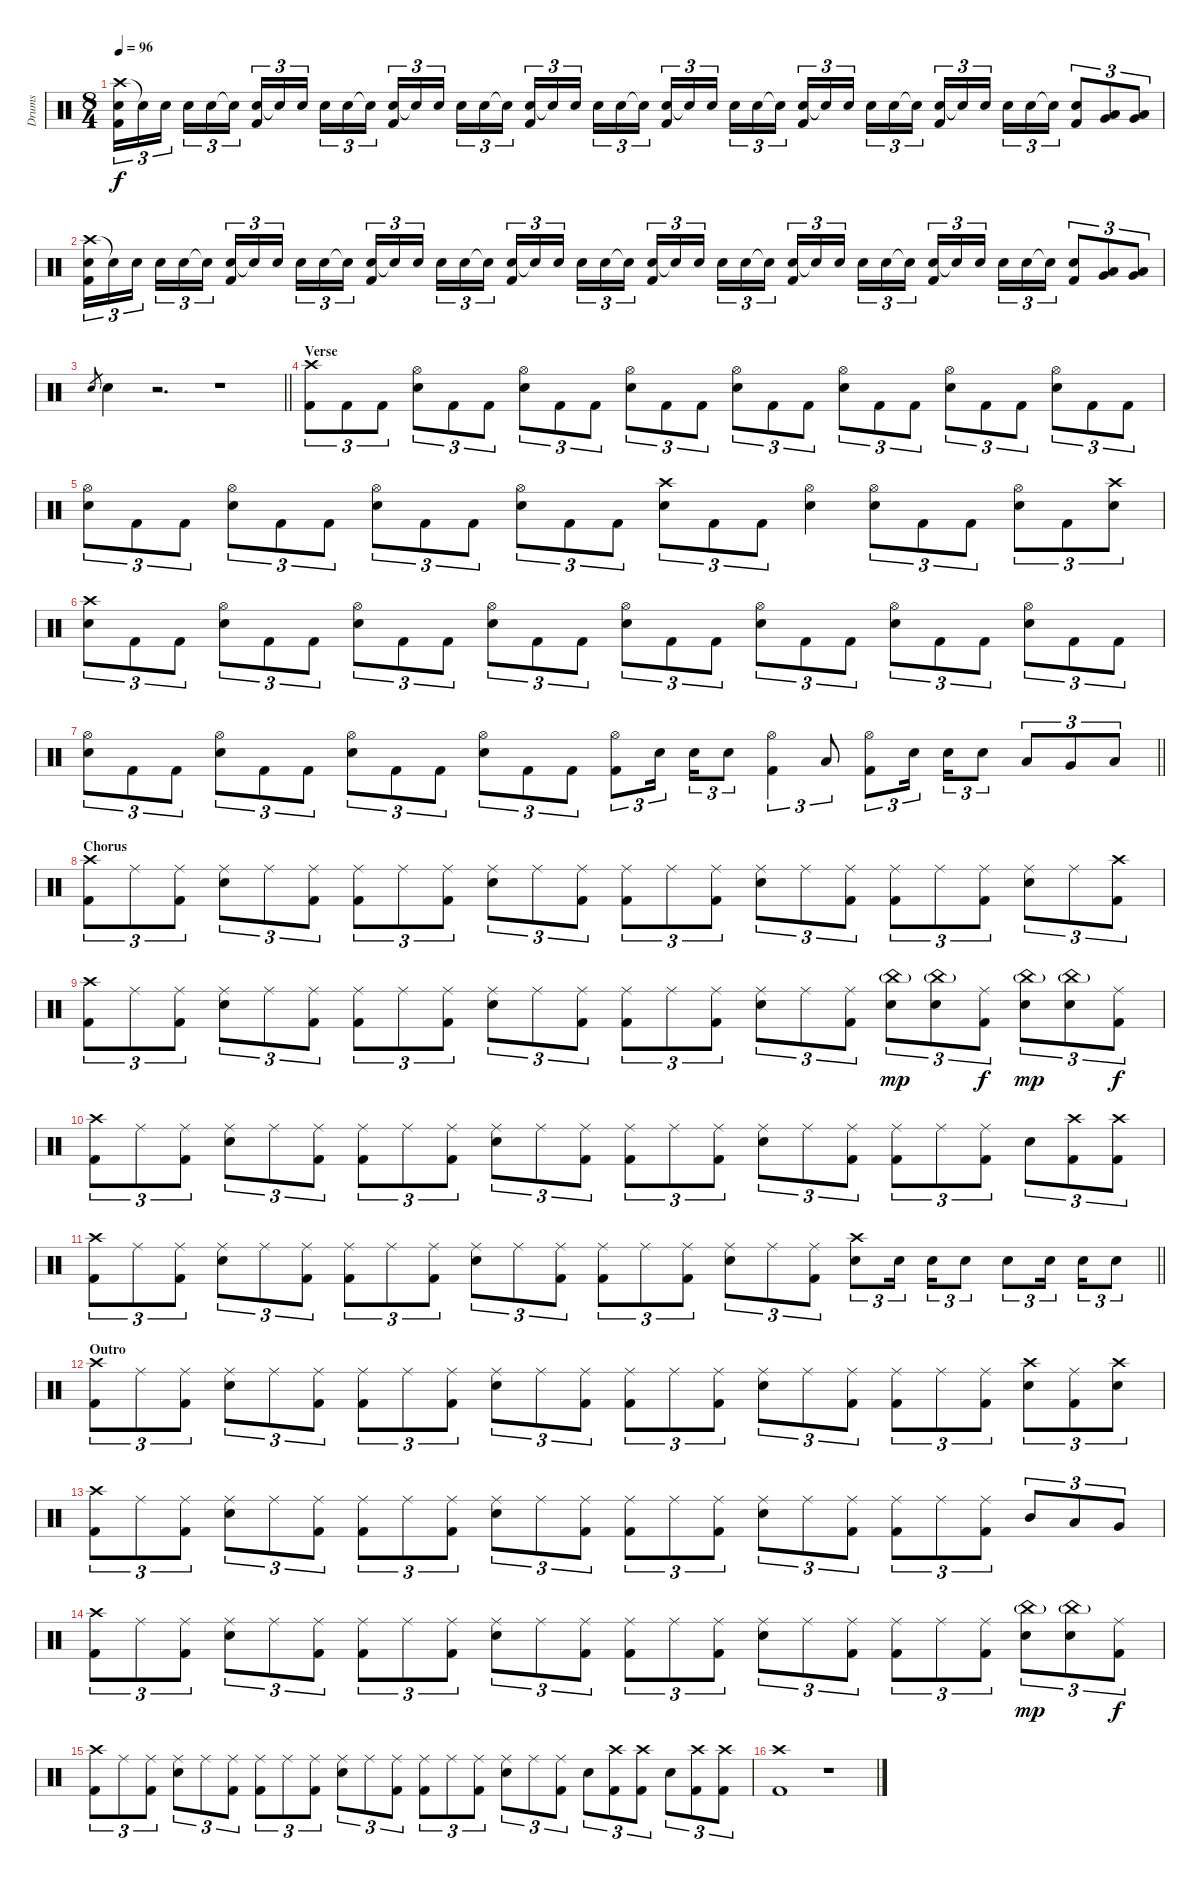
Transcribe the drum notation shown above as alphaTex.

\track ("Drums" "Drums") {instrument percussion}
\staff {score}
\articulation defaults
\ts (8 4)
\tempo 96
\clef neutral
\ks c
("Crash high (hit)" "Snare (hit) 2" "Kick (hit) 2").16{tu (3 2) dy f} "Snare (hit) 2"{t}.16{tu (3 2)} "Snare (hit) 2".16{tu (3 2) beam splitsecondary} "Snare (hit) 2".16{tu (3 2)} "Snare (hit) 2".16{tu (3 2)} "Snare (hit) 2"{t}.16{tu (3 2)} ("Snare (hit) 2" "Kick (hit) 2").16{tu (3 2)} "Snare (hit) 2"{t}.16{tu (3 2)} "Snare (hit) 2".16{tu (3 2) beam splitsecondary} "Snare (hit) 2".16{tu (3 2)} "Snare (hit) 2".16{tu (3 2)} "Snare (hit) 2"{t}.16{tu (3 2)} ("Snare (hit) 2" "Kick (hit) 2").16{tu (3 2)} "Snare (hit) 2"{t}.16{tu (3 2)} "Snare (hit) 2".16{tu (3 2) beam splitsecondary} "Snare (hit) 2".16{tu (3 2)} "Snare (hit) 2".16{tu (3 2)} "Snare (hit) 2"{t}.16{tu (3 2)} ("Snare (hit) 2" "Kick (hit) 2").16{tu (3 2)} "Snare (hit) 2"{t}.16{tu (3 2)} "Snare (hit) 2".16{tu (3 2) beam splitsecondary} "Snare (hit) 2".16{tu (3 2)} "Snare (hit) 2".16{tu (3 2)} "Snare (hit) 2"{t}.16{tu (3 2)} ("Snare (hit) 2" "Kick (hit) 2").16{tu (3 2)} "Snare (hit) 2"{t}.16{tu (3 2)} "Snare (hit) 2".16{tu (3 2) beam splitsecondary} "Snare (hit) 2".16{tu (3 2)} "Snare (hit) 2".16{tu (3 2)} "Snare (hit) 2"{t}.16{tu (3 2)} ("Snare (hit) 2" "Kick (hit) 2").16{tu (3 2)} "Snare (hit) 2"{t}.16{tu (3 2)} "Snare (hit) 2".16{tu (3 2) beam splitsecondary} "Snare (hit) 2".16{tu (3 2)} "Snare (hit) 2".16{tu (3 2)} "Snare (hit) 2"{t}.16{tu (3 2)} ("Snare (hit) 2" "Kick (hit) 2").16{tu (3 2)} "Snare (hit) 2"{t}.16{tu (3 2)} "Snare (hit) 2".16{tu (3 2) beam splitsecondary} "Snare (hit) 2".16{tu (3 2)} "Snare (hit) 2".16{tu (3 2)} "Snare (hit)"{t}.16{tu (3 2)} ("Snare (hit) 2" "Kick (hit) 2").8{tu (3 2)} ("Low Tom (hit)" "Very Low Tom (hit)").8{tu (3 2)} ("Low Floor Tom (hit)" "Very Low Tom (hit)").8{tu (3 2)} |
("Crash high (hit)" "Snare (hit) 2" "Kick (hit) 2").16{tu (3 2)} "Snare (hit) 2"{t}.16{tu (3 2)} "Snare (hit) 2".16{tu (3 2) beam splitsecondary} "Snare (hit) 2".16{tu (3 2)} "Snare (hit) 2".16{tu (3 2)} "Snare (hit) 2"{t}.16{tu (3 2)} ("Snare (hit) 2" "Kick (hit) 2").16{tu (3 2)} "Snare (hit) 2"{t}.16{tu (3 2)} "Snare (hit) 2".16{tu (3 2) beam splitsecondary} "Snare (hit) 2".16{tu (3 2)} "Snare (hit) 2".16{tu (3 2)} "Snare (hit) 2"{t}.16{tu (3 2)} ("Snare (hit) 2" "Kick (hit) 2").16{tu (3 2)} "Snare (hit) 2"{t}.16{tu (3 2)} "Snare (hit) 2".16{tu (3 2) beam splitsecondary} "Snare (hit) 2".16{tu (3 2)} "Snare (hit) 2".16{tu (3 2)} "Snare (hit) 2"{t}.16{tu (3 2)} ("Snare (hit) 2" "Kick (hit) 2").16{tu (3 2)} "Snare (hit) 2"{t}.16{tu (3 2)} "Snare (hit) 2".16{tu (3 2) beam splitsecondary} "Snare (hit) 2".16{tu (3 2)} "Snare (hit) 2".16{tu (3 2)} "Snare (hit) 2"{t}.16{tu (3 2)} ("Snare (hit) 2" "Kick (hit) 2").16{tu (3 2)} "Snare (hit) 2"{t}.16{tu (3 2)} "Snare (hit) 2".16{tu (3 2) beam splitsecondary} "Snare (hit) 2".16{tu (3 2)} "Snare (hit) 2".16{tu (3 2)} "Snare (hit) 2"{t}.16{tu (3 2)} ("Snare (hit) 2" "Kick (hit) 2").16{tu (3 2)} "Snare (hit) 2"{t}.16{tu (3 2)} "Snare (hit) 2".16{tu (3 2) beam splitsecondary} "Snare (hit) 2".16{tu (3 2)} "Snare (hit) 2".16{tu (3 2)} "Snare (hit) 2"{t}.16{tu (3 2)} ("Snare (hit) 2" "Kick (hit) 2").16{tu (3 2)} "Snare (hit) 2"{t}.16{tu (3 2)} "Snare (hit) 2".16{tu (3 2) beam splitsecondary} "Snare (hit) 2".16{tu (3 2)} "Snare (hit) 2".16{tu (3 2)} "Snare (hit) 2"{t}.16{tu (3 2)} ("Snare (hit) 2" "Kick (hit) 2").8{tu (3 2)} ("Low Tom (hit)" "Very Low Tom (hit)").8{tu (3 2)} ("Low Floor Tom (hit)" "Very Low Tom (hit)").8{tu (3 2)} |
\barLineRight lightlight "Snare (hit) 2".8{gr} "Snare (hit) 2".4
r.2{d} r.1 |
\section ("" "Verse")
("Crash high (hit)" "Kick (hit) 2").8{tu (3 2)} "Kick (hit) 2".8{tu (3 2)} "Kick (hit) 2".8{tu (3 2)} ("Hi-Hat (open)" "Snare (hit) 2").8{tu (3 2)} "Kick (hit) 2".8{tu (3 2)} "Kick (hit) 2".8{tu (3 2)} ("Hi-Hat (open)" "Snare (hit) 2").8{tu (3 2)} "Kick (hit) 2".8{tu (3 2)} "Kick (hit) 2".8{tu (3 2)} ("Hi-Hat (open)" "Snare (hit) 2").8{tu (3 2)} "Kick (hit) 2".8{tu (3 2)} "Kick (hit) 2".8{tu (3 2)} ("Hi-Hat (open)" "Snare (hit) 2").8{tu (3 2)} "Kick (hit) 2".8{tu (3 2)} "Kick (hit) 2".8{tu (3 2)} ("Hi-Hat (open)" "Snare (hit) 2").8{tu (3 2)} "Kick (hit) 2".8{tu (3 2)} "Kick (hit) 2".8{tu (3 2)} ("Hi-Hat (open)" "Snare (hit) 2").8{tu (3 2)} "Kick (hit) 2".8{tu (3 2)} "Kick (hit) 2".8{tu (3 2)} ("Hi-Hat (open)" "Snare (hit) 2").8{tu (3 2)} "Kick (hit) 2".8{tu (3 2)} "Kick (hit) 2".8{tu (3 2)} |
("Hi-Hat (open)" "Snare (hit) 2").8{tu (3 2)} "Kick (hit) 2".8{tu (3 2)} "Kick (hit) 2".8{tu (3 2)} ("Hi-Hat (open)" "Snare (hit) 2").8{tu (3 2)} "Kick (hit) 2".8{tu (3 2)} "Kick (hit) 2".8{tu (3 2)} ("Hi-Hat (open)" "Snare (hit) 2").8{tu (3 2)} "Kick (hit) 2".8{tu (3 2)} "Kick (hit) 2".8{tu (3 2)} ("Hi-Hat (open)" "Snare (hit) 2").8{tu (3 2)} "Kick (hit) 2".8{tu (3 2)} "Kick (hit) 2".8{tu (3 2)} ("Crash high (hit)" "Snare (hit) 2").8{tu (3 2)} "Kick (hit) 2".8{tu (3 2)} "Kick (hit) 2".8{tu (3 2)} ("Hi-Hat (open)" "Snare (hit) 2").4 ("Hi-Hat (open)" "Snare (hit) 2").8{tu (3 2)} "Kick (hit) 2".8{tu (3 2)} "Kick (hit) 2".8{tu (3 2)} ("Hi-Hat (open)" "Snare (hit) 2").8{tu (3 2)} "Kick (hit) 2".8{tu (3 2)} ("Crash high (hit)" "Snare (hit) 2").8{tu (3 2)} |
("Crash high (hit)" "Snare (hit) 2").8{tu (3 2)} "Kick (hit) 2".8{tu (3 2)} "Kick (hit) 2".8{tu (3 2)} ("Hi-Hat (open)" "Snare (hit) 2").8{tu (3 2)} "Kick (hit) 2".8{tu (3 2)} "Kick (hit) 2".8{tu (3 2)} ("Hi-Hat (open)" "Snare (hit) 2").8{tu (3 2)} "Kick (hit) 2".8{tu (3 2)} "Kick (hit) 2".8{tu (3 2)} ("Hi-Hat (open)" "Snare (hit) 2").8{tu (3 2)} "Kick (hit) 2".8{tu (3 2)} "Kick (hit) 2".8{tu (3 2)} ("Hi-Hat (open)" "Snare (hit) 2").8{tu (3 2)} "Kick (hit) 2".8{tu (3 2)} "Kick (hit) 2".8{tu (3 2)} ("Hi-Hat (open)" "Snare (hit) 2").8{tu (3 2)} "Kick (hit) 2".8{tu (3 2)} "Kick (hit) 2".8{tu (3 2)} ("Hi-Hat (open)" "Snare (hit) 2").8{tu (3 2)} "Kick (hit) 2".8{tu (3 2)} "Kick (hit) 2".8{tu (3 2)} ("Hi-Hat (open)" "Snare (hit) 2").8{tu (3 2)} "Kick (hit) 2".8{tu (3 2)} "Kick (hit) 2".8{tu (3 2)} |
\barLineRight lightlight
("Hi-Hat (open)" "Snare (hit) 2").8{tu (3 2)} "Kick (hit) 2".8{tu (3 2)} "Kick (hit) 2".8{tu (3 2)} ("Hi-Hat (open)" "Snare (hit) 2").8{tu (3 2)} "Kick (hit) 2".8{tu (3 2)} "Kick (hit) 2".8{tu (3 2)} ("Hi-Hat (open)" "Snare (hit) 2").8{tu (3 2)} "Kick (hit) 2".8{tu (3 2)} "Kick (hit) 2".8{tu (3 2)} ("Hi-Hat (open)" "Snare (hit) 2").8{tu (3 2)} "Kick (hit) 2".8{tu (3 2)} "Kick (hit) 2".8{tu (3 2)} ("Hi-Hat (open)" "Kick (hit) 2").8{tu (3 2)} "Snare (hit) 2".16{tu (3 2) beam splitsecondary} "Snare (hit) 2".16{tu (3 2)} "Snare (hit) 2".8{tu (3 2)} ("Hi-Hat (open)" "Kick (hit) 2").4{tu (3 2)} "Low Floor Tom (hit)".8{tu (3 2)} ("Hi-Hat (open)" "Kick (hit) 2").8{tu (3 2)} "Snare (hit) 2".16{tu (3 2) beam splitsecondary} "Snare (hit) 2".16{tu (3 2)} "Snare (hit) 2".8{tu (3 2)} "Low Tom (hit)".8{tu (3 2)} "Very Low Tom (hit)".8{tu (3 2)} "Low Floor Tom (hit)".8{tu (3 2)} |
\section ("" "Chorus")
("Crash high (hit)" "Kick (hit) 2").8{tu (3 2)} "Ride (middle)".8{tu (3 2)} ("Ride (middle)" "Kick (hit) 2").8{tu (3 2)} ("Ride (middle)" "Snare (hit) 2").8{tu (3 2)} "Ride (middle)".8{tu (3 2)} ("Ride (middle)" "Kick (hit) 2").8{tu (3 2)} ("Ride (middle)" "Kick (hit) 2").8{tu (3 2)} "Ride (middle)".8{tu (3 2)} ("Ride (middle)" "Kick (hit) 2").8{tu (3 2)} ("Ride (middle)" "Snare (hit) 2").8{tu (3 2)} "Ride (middle)".8{tu (3 2)} ("Ride (middle)" "Kick (hit) 2").8{tu (3 2)} ("Ride (middle)" "Kick (hit) 2").8{tu (3 2)} "Ride (middle)".8{tu (3 2)} ("Ride (middle)" "Kick (hit) 2").8{tu (3 2)} ("Ride (middle)" "Snare (hit) 2").8{tu (3 2)} "Ride (middle)".8{tu (3 2)} ("Ride (middle)" "Kick (hit) 2").8{tu (3 2)} ("Ride (middle)" "Kick (hit) 2").8{tu (3 2)} "Ride (middle)".8{tu (3 2)} ("Ride (middle)" "Kick (hit) 2").8{tu (3 2)} ("Ride (middle)" "Snare (hit) 2").8{tu (3 2)} "Ride (middle)".8{tu (3 2)} ("Crash high (hit)" "Kick (hit) 2").8{tu (3 2)} |
("Crash high (hit)" "Kick (hit) 2").8{tu (3 2)} "Ride (middle)".8{tu (3 2)} ("Ride (middle)" "Kick (hit) 2").8{tu (3 2)} ("Ride (middle)" "Snare (hit) 2").8{tu (3 2)} "Ride (middle)".8{tu (3 2)} ("Ride (middle)" "Kick (hit) 2").8{tu (3 2)} ("Ride (middle)" "Kick (hit) 2").8{tu (3 2)} "Ride (middle)".8{tu (3 2)} ("Ride (middle)" "Kick (hit) 2").8{tu (3 2)} ("Ride (middle)" "Snare (hit) 2").8{tu (3 2)} "Ride (middle)".8{tu (3 2)} ("Ride (middle)" "Kick (hit) 2").8{tu (3 2)} ("Ride (middle)" "Kick (hit) 2").8{tu (3 2)} "Ride (middle)".8{tu (3 2)} ("Ride (middle)" "Kick (hit) 2").8{tu (3 2)} ("Ride (middle)" "Snare (hit) 2").8{tu (3 2)} "Ride (middle)".8{tu (3 2)} ("Ride (middle)" "Kick (hit) 2").8{tu (3 2)} ("China (hit)"{g} "Snare (hit) 2").8{tu (3 2) dy mp} ("China (hit)"{g} "Snare (hit) 2").8{tu (3 2)} ("Ride (middle)" "Kick (hit) 2").8{tu (3 2) dy f} ("China (hit)"{g} "Snare (hit) 2").8{tu (3 2) dy mp} ("China (hit)"{g} "Snare (hit) 2").8{tu (3 2)} ("Ride (middle)" "Kick (hit) 2").8{tu (3 2) dy f} |
("Crash high (hit)" "Kick (hit) 2").8{tu (3 2)} "Ride (middle)".8{tu (3 2)} ("Ride (middle)" "Kick (hit) 2").8{tu (3 2)} ("Ride (middle)" "Snare (hit) 2").8{tu (3 2)} "Ride (middle)".8{tu (3 2)} ("Ride (middle)" "Kick (hit) 2").8{tu (3 2)} ("Ride (middle)" "Kick (hit) 2").8{tu (3 2)} "Ride (middle)".8{tu (3 2)} ("Ride (middle)" "Kick (hit) 2").8{tu (3 2)} ("Ride (middle)" "Snare (hit) 2").8{tu (3 2)} "Ride (middle)".8{tu (3 2)} ("Ride (middle)" "Kick (hit) 2").8{tu (3 2)} ("Ride (middle)" "Kick (hit) 2").8{tu (3 2)} "Ride (middle)".8{tu (3 2)} ("Ride (middle)" "Kick (hit) 2").8{tu (3 2)} ("Ride (middle)" "Snare (hit) 2").8{tu (3 2)} "Ride (middle)".8{tu (3 2)} ("Ride (middle)" "Kick (hit) 2").8{tu (3 2)} ("Ride (middle)" "Kick (hit) 2").8{tu (3 2)} "Ride (middle)".8{tu (3 2)} ("Ride (middle)" "Kick (hit) 2").8{tu (3 2)} "Snare (hit) 2".8{tu (3 2)} ("Crash high (hit)" "Kick (hit) 2").8{tu (3 2)} ("Crash high (hit)" "Kick (hit) 2").8{tu (3 2)} |
\barLineRight lightlight
("Crash high (hit)" "Kick (hit) 2").8{tu (3 2)} "Ride (middle)".8{tu (3 2)} ("Ride (middle)" "Kick (hit) 2").8{tu (3 2)} ("Ride (middle)" "Snare (hit) 2").8{tu (3 2)} "Ride (middle)".8{tu (3 2)} ("Ride (middle)" "Kick (hit) 2").8{tu (3 2)} ("Ride (middle)" "Kick (hit) 2").8{tu (3 2)} "Ride (middle)".8{tu (3 2)} ("Ride (middle)" "Kick (hit) 2").8{tu (3 2)} ("Ride (middle)" "Snare (hit) 2").8{tu (3 2)} "Ride (middle)".8{tu (3 2)} ("Ride (middle)" "Kick (hit) 2").8{tu (3 2)} ("Ride (middle)" "Kick (hit) 2").8{tu (3 2)} "Ride (middle)".8{tu (3 2)} ("Ride (middle)" "Kick (hit) 2").8{tu (3 2)} ("Ride (middle)" "Snare (hit) 2").8{tu (3 2)} "Ride (middle)".8{tu (3 2)} ("Ride (middle)" "Kick (hit) 2").8{tu (3 2)} ("Crash high (hit)" "Snare (hit) 2").8{tu (3 2)} "Snare (hit) 2".16{tu (3 2) beam splitsecondary} "Snare (hit) 2".16{tu (3 2)} "Snare (hit) 2".8{tu (3 2)} "Snare (hit) 2".8{tu (3 2)} "Snare (hit) 2".16{tu (3 2) beam splitsecondary} "Snare (hit) 2".16{tu (3 2)} "Snare (hit) 2".8{tu (3 2)} |
\section ("" "Outro")
("Crash high (hit)" "Kick (hit) 2").8{tu (3 2)} "Ride (middle)".8{tu (3 2)} ("Ride (middle)" "Kick (hit) 2").8{tu (3 2)} ("Ride (middle)" "Snare (hit) 2").8{tu (3 2)} "Ride (middle)".8{tu (3 2)} ("Ride (middle)" "Kick (hit) 2").8{tu (3 2)} ("Ride (middle)" "Kick (hit) 2").8{tu (3 2)} "Ride (middle)".8{tu (3 2)} ("Ride (middle)" "Kick (hit) 2").8{tu (3 2)} ("Ride (middle)" "Snare (hit) 2").8{tu (3 2)} "Ride (middle)".8{tu (3 2)} ("Ride (middle)" "Kick (hit) 2").8{tu (3 2)} ("Ride (middle)" "Kick (hit) 2").8{tu (3 2)} "Ride (middle)".8{tu (3 2)} ("Ride (middle)" "Kick (hit) 2").8{tu (3 2)} ("Ride (middle)" "Snare (hit) 2").8{tu (3 2)} "Ride (middle)".8{tu (3 2)} ("Ride (middle)" "Kick (hit) 2").8{tu (3 2)} ("Ride (middle)" "Kick (hit) 2").8{tu (3 2)} "Ride (middle)".8{tu (3 2)} ("Ride (middle)" "Kick (hit) 2").8{tu (3 2)} ("Crash high (hit)" "Snare (hit) 2").8{tu (3 2)} ("Ride (middle)" "Kick (hit) 2").8{tu (3 2)} ("Crash high (hit)" "Snare (hit) 2").8{tu (3 2)} |
("Crash high (hit)" "Kick (hit) 2").8{tu (3 2)} "Ride (middle)".8{tu (3 2)} ("Ride (middle)" "Kick (hit) 2").8{tu (3 2)} ("Ride (middle)" "Snare (hit) 2").8{tu (3 2)} "Ride (middle)".8{tu (3 2)} ("Ride (middle)" "Kick (hit) 2").8{tu (3 2)} ("Ride (middle)" "Kick (hit) 2").8{tu (3 2)} "Ride (middle)".8{tu (3 2)} ("Ride (middle)" "Kick (hit) 2").8{tu (3 2)} ("Ride (middle)" "Snare (hit) 2").8{tu (3 2)} "Ride (middle)".8{tu (3 2)} ("Ride (middle)" "Kick (hit) 2").8{tu (3 2)} ("Ride (middle)" "Kick (hit) 2").8{tu (3 2)} "Ride (middle)".8{tu (3 2)} ("Ride (middle)" "Kick (hit) 2").8{tu (3 2)} ("Ride (middle)" "Snare (hit) 2").8{tu (3 2)} "Ride (middle)".8{tu (3 2)} ("Ride (middle)" "Kick (hit) 2").8{tu (3 2)} ("Ride (middle)" "Kick (hit) 2").8{tu (3 2)} "Ride (middle)".8{tu (3 2)} ("Ride (middle)" "Kick (hit) 2").8{tu (3 2)} "Mid Tom (hit)".8{tu (3 2)} "Low Tom (hit)".8{tu (3 2)} "Very Low Tom (hit)".8{tu (3 2)} |
("Crash high (hit)" "Kick (hit) 2").8{tu (3 2)} "Ride (middle)".8{tu (3 2)} ("Ride (middle)" "Kick (hit) 2").8{tu (3 2)} ("Ride (middle)" "Snare (hit) 2").8{tu (3 2)} "Ride (middle)".8{tu (3 2)} ("Ride (middle)" "Kick (hit) 2").8{tu (3 2)} ("Ride (middle)" "Kick (hit) 2").8{tu (3 2)} "Ride (middle)".8{tu (3 2)} ("Ride (middle)" "Kick (hit) 2").8{tu (3 2)} ("Ride (middle)" "Snare (hit) 2").8{tu (3 2)} "Ride (middle)".8{tu (3 2)} ("Ride (middle)" "Kick (hit) 2").8{tu (3 2)} ("Ride (middle)" "Kick (hit) 2").8{tu (3 2)} "Ride (middle)".8{tu (3 2)} ("Ride (middle)" "Kick (hit) 2").8{tu (3 2)} ("Ride (middle)" "Snare (hit) 2").8{tu (3 2)} "Ride (middle)".8{tu (3 2)} ("Ride (middle)" "Kick (hit) 2").8{tu (3 2)} ("Ride (middle)" "Kick (hit) 2").8{tu (3 2)} "Ride (middle)".8{tu (3 2)} ("Ride (middle)" "Kick (hit) 2").8{tu (3 2)} ("China (hit)"{g} "Snare (hit) 2").8{tu (3 2) dy mp} ("China (hit)"{g} "Snare (hit) 2").8{tu (3 2)} ("Ride (middle)" "Kick (hit) 2").8{tu (3 2) dy f} |
("Crash high (hit)" "Kick (hit) 2").8{tu (3 2)} "Ride (middle)".8{tu (3 2)} ("Ride (middle)" "Kick (hit) 2").8{tu (3 2)} ("Ride (middle)" "Snare (hit) 2").8{tu (3 2)} "Ride (middle)".8{tu (3 2)} ("Ride (middle)" "Kick (hit) 2").8{tu (3 2)} ("Ride (middle)" "Kick (hit) 2").8{tu (3 2)} "Ride (middle)".8{tu (3 2)} ("Ride (middle)" "Kick (hit) 2").8{tu (3 2)} ("Ride (middle)" "Snare (hit) 2").8{tu (3 2)} "Ride (middle)".8{tu (3 2)} ("Ride (middle)" "Kick (hit) 2").8{tu (3 2)} ("Ride (middle)" "Kick (hit) 2").8{tu (3 2)} "Ride (middle)".8{tu (3 2)} ("Ride (middle)" "Kick (hit) 2").8{tu (3 2)} ("Ride (middle)" "Snare (hit) 2").8{tu (3 2)} "Ride (middle)".8{tu (3 2)} ("Ride (middle)" "Kick (hit) 2").8{tu (3 2)} "Snare (hit) 2".8{tu (3 2)} ("Crash high (hit)" "Kick (hit) 2").8{tu (3 2)} ("Crash high (hit)" "Kick (hit) 2").8{tu (3 2)} "Snare (hit) 2".8{tu (3 2)} ("Crash high (hit)" "Kick (hit) 2").8{tu (3 2)} ("Crash high (hit)" "Kick (hit) 2").8{tu (3 2)} |
("Crash high (hit)" "Kick (hit) 2").1 r.1
